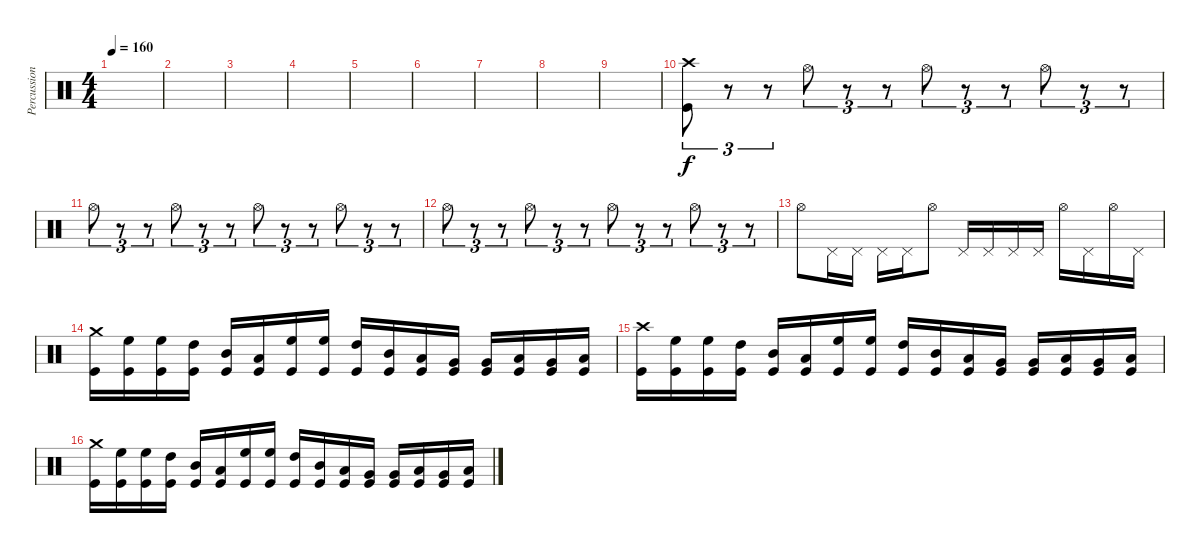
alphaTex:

\track ("Percussion" "Percussion") {instrument percussion}
\staff {score}
\articulation defaults
\ts (4 4)
\tempo 160
\clef neutral
\ks c
|
|
|
|
|
|
|
|
|
("Crash high (hit)" "Kick (hit)").8{tu (3 2)} r.8{tu (3 2)} r.8{tu (3 2)} "Hi-Hat (open)".8{tu (3 2)} r.8{tu (3 2)} r.8{tu (3 2)} "Hi-Hat (open)".8{tu (3 2)} r.8{tu (3 2)} r.8{tu (3 2)} "Hi-Hat (open)".8{tu (3 2)} r.8{tu (3 2)} r.8{tu (3 2)} |
"Hi-Hat (open)".8{tu (3 2)} r.8{tu (3 2)} r.8{tu (3 2)} "Hi-Hat (open)".8{tu (3 2)} r.8{tu (3 2)} r.8{tu (3 2)} "Hi-Hat (open)".8{tu (3 2)} r.8{tu (3 2)} r.8{tu (3 2)} "Hi-Hat (open)".8{tu (3 2)} r.8{tu (3 2)} r.8{tu (3 2)} |
"Hi-Hat (open)".8{tu (3 2)} r.8{tu (3 2)} r.8{tu (3 2)} "Hi-Hat (open)".8{tu (3 2)} r.8{tu (3 2)} r.8{tu (3 2)} "Hi-Hat (open)".8{tu (3 2)} r.8{tu (3 2)} r.8{tu (3 2)} "Hi-Hat (open)".8{tu (3 2)} r.8{tu (3 2)} r.8{tu (3 2)} |
"Hi-Hat (open)".8 "Pedal Hi-Hat (hit)".16 "Pedal Hi-Hat (hit)".16 "Pedal Hi-Hat (hit)".16 "Pedal Hi-Hat (hit)".16 "Hi-Hat (open)".8 "Pedal Hi-Hat (hit)".16 "Pedal Hi-Hat (hit)".16 "Pedal Hi-Hat (hit)".16 "Pedal Hi-Hat (hit)".16 "Hi-Hat (open)".16 "Pedal Hi-Hat (hit)".16 "Hi-Hat (open)".16 "Pedal Hi-Hat (hit)".16 |
("Crash medium (hit)" "Kick (hit)").16 ("High Floor Tom (hit)" "Kick (hit)").16 ("High Floor Tom (hit)" "Kick (hit)").16 ("High Tom (hit)" "Kick (hit)").16 ("Mid Tom (hit)" "Kick (hit)").16 ("Low Tom (hit)" "Kick (hit)").16 ("High Floor Tom (hit)" "Kick (hit)").16 ("High Floor Tom (hit)" "Kick (hit)").16 ("High Tom (hit)" "Kick (hit)").16 ("Mid Tom (hit)" "Kick (hit)").16 ("Low Tom (hit)" "Kick (hit)").16 ("Very Low Tom (hit)" "Kick (hit)").16 ("Very Low Tom (hit)" "Kick (hit)").16 ("Low Floor Tom (hit)" "Kick (hit)").16 ("Very Low Tom (hit)" "Kick (hit)").16 ("Low Floor Tom (hit)" "Kick (hit)").16 |
("Crash high (hit)" "Kick (hit)").16 ("High Floor Tom (hit)" "Kick (hit)").16 ("High Floor Tom (hit)" "Kick (hit)").16 ("High Tom (hit)" "Kick (hit)").16 ("Mid Tom (hit)" "Kick (hit)").16 ("Low Tom (hit)" "Kick (hit)").16 ("High Floor Tom (hit)" "Kick (hit)").16 ("High Floor Tom (hit)" "Kick (hit)").16 ("High Tom (hit)" "Kick (hit)").16 ("Mid Tom (hit)" "Kick (hit)").16 ("Low Tom (hit)" "Kick (hit)").16 ("Very Low Tom (hit)" "Kick (hit)").16 ("Very Low Tom (hit)" "Kick (hit)").16 ("Low Floor Tom (hit)" "Kick (hit)").16 ("Very Low Tom (hit)" "Kick (hit)").16 ("Low Floor Tom (hit)" "Kick (hit)").16 |
("Crash medium (hit)" "Kick (hit)").16 ("High Floor Tom (hit)" "Kick (hit)").16 ("High Floor Tom (hit)" "Kick (hit)").16 ("High Tom (hit)" "Kick (hit)").16 ("Mid Tom (hit)" "Kick (hit)").16 ("Low Tom (hit)" "Kick (hit)").16 ("High Floor Tom (hit)" "Kick (hit)").16 ("High Floor Tom (hit)" "Kick (hit)").16 ("High Tom (hit)" "Kick (hit)").16 ("Mid Tom (hit)" "Kick (hit)").16 ("Low Tom (hit)" "Kick (hit)").16 ("Very Low Tom (hit)" "Kick (hit)").16 ("Very Low Tom (hit)" "Kick (hit)").16 ("Low Floor Tom (hit)" "Kick (hit)").16 ("Very Low Tom (hit)" "Kick (hit)").16 ("Low Floor Tom (hit)" "Kick (hit)").16
